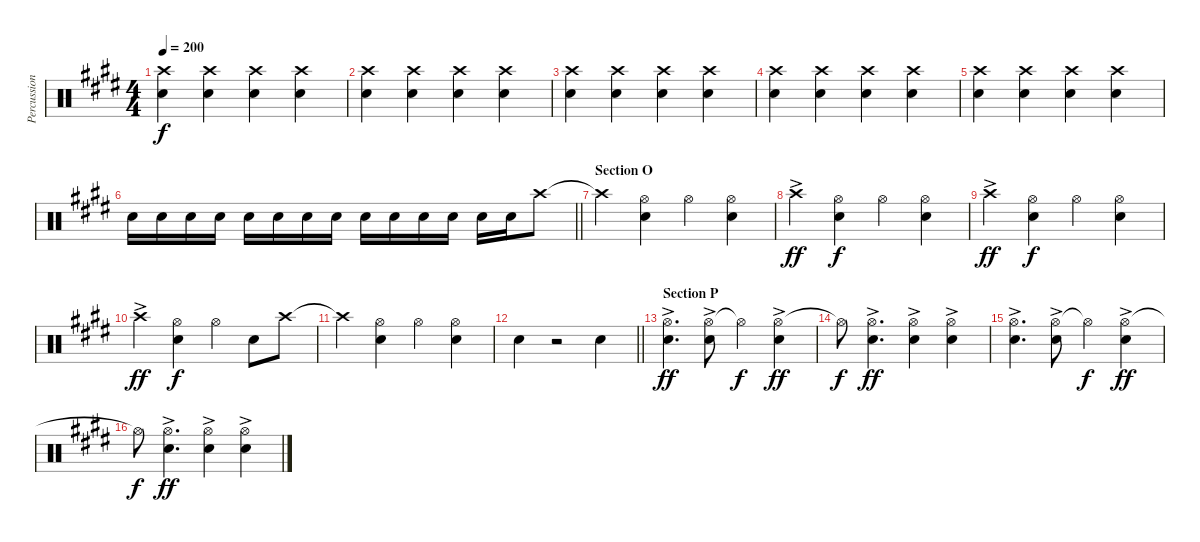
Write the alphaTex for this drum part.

\track ("Percussion - other" "Percussion") {instrument percussion}
\staff {score}
\articulation defaults
\ts (4 4)
\tempo 200
\clef neutral
\ks e
("Crash high (hit)" "Snare (hit) 2").4{dy f} ("Crash high (hit)" "Snare (hit) 2").4 ("Crash high (hit)" "Snare (hit) 2").4 ("Crash high (hit)" "Snare (hit) 2").4 |
("Crash high (hit)" "Snare (hit) 2").4 ("Crash high (hit)" "Snare (hit) 2").4 ("Crash high (hit)" "Snare (hit) 2").4 ("Crash high (hit)" "Snare (hit) 2").4 |
("Crash high (hit)" "Snare (hit) 2").4 ("Crash high (hit)" "Snare (hit) 2").4 ("Crash high (hit)" "Snare (hit) 2").4 ("Crash high (hit)" "Snare (hit) 2").4 |
("Crash high (hit)" "Snare (hit) 2").4 ("Crash high (hit)" "Snare (hit) 2").4 ("Crash high (hit)" "Snare (hit) 2").4 ("Crash high (hit)" "Snare (hit) 2").4 |
("Crash high (hit)" "Snare (hit) 2").4 ("Crash high (hit)" "Snare (hit) 2").4 ("Crash high (hit)" "Snare (hit) 2").4 ("Crash high (hit)" "Snare (hit) 2").4 |
\barLineRight lightlight "Snare (hit) 2".16 "Snare (hit) 2".16 "Snare (hit) 2".16 "Snare (hit) 2".16 "Snare (hit) 2".16 "Snare (hit) 2".16 "Snare (hit) 2".16 "Snare (hit) 2".16 "Snare (hit) 2".16 "Snare (hit) 2".16 "Snare (hit) 2".16 "Snare (hit) 2".16 "Snare (hit) 2".16 "Snare (hit) 2".16 "Crash high (hit)".8
|
\section ("" "Section O")
"Crash high (hit)"{t}.4 ("Hi-Hat (open)" "Snare (hit) 2").4 "Hi-Hat (open)".4 ("Hi-Hat (open)" "Snare (hit) 2").4 |
"Crash high (hit)"{ac}.4{dy ff} ("Hi-Hat (open)" "Snare (hit) 2").4{dy f} "Hi-Hat (open)".4 ("Hi-Hat (open)" "Snare (hit) 2").4 |
"Crash high (hit)"{ac}.4{dy ff} ("Hi-Hat (open)" "Snare (hit) 2").4{dy f} "Hi-Hat (open)".4 ("Hi-Hat (open)" "Snare (hit) 2").4 |
"Crash high (hit)"{ac}.4{dy ff} ("Hi-Hat (open)" "Snare (hit) 2").4{dy f} "Hi-Hat (open)".4 "Snare (hit) 2".8 "Crash high (hit)".8 |
"Crash high (hit)"{t}.4 ("Hi-Hat (open)" "Snare (hit) 2").4 "Hi-Hat (open)".4 ("Hi-Hat (open)" "Snare (hit) 2").4 |
\barLineRight lightlight "Snare (hit) 2".4
r.2 "Snare (hit) 2".4 |
\section ("" "Section P")
("Hi-Hat (open)"{ac} "Snare (hit) 2").4{d dy ff} ("Hi-Hat (open)"{ac} "Snare (hit) 2").8 "Hi-Hat (open)"{t}.4{dy f} ("Hi-Hat (open)"{ac} "Snare (hit) 2").4{dy ff} |
"Hi-Hat (open)"{t}.8{dy f} ("Hi-Hat (open)"{ac} "Snare (hit) 2").4{d dy ff} ("Hi-Hat (open)"{ac} "Snare (hit) 2").4 ("Hi-Hat (open)"{ac} "Snare (hit) 2").4 |
("Hi-Hat (open)"{ac} "Snare (hit) 2").4{d} ("Hi-Hat (open)"{ac} "Snare (hit) 2").8 "Hi-Hat (open)"{t}.4{dy f} ("Hi-Hat (open)"{ac} "Snare (hit) 2").4{dy ff} |
"Hi-Hat (open)"{t}.8{dy f} ("Hi-Hat (open)"{ac} "Snare (hit) 2").4{d dy ff} ("Hi-Hat (open)"{ac} "Snare (hit) 2").4 ("Hi-Hat (open)"{ac} "Snare (hit) 2").4
